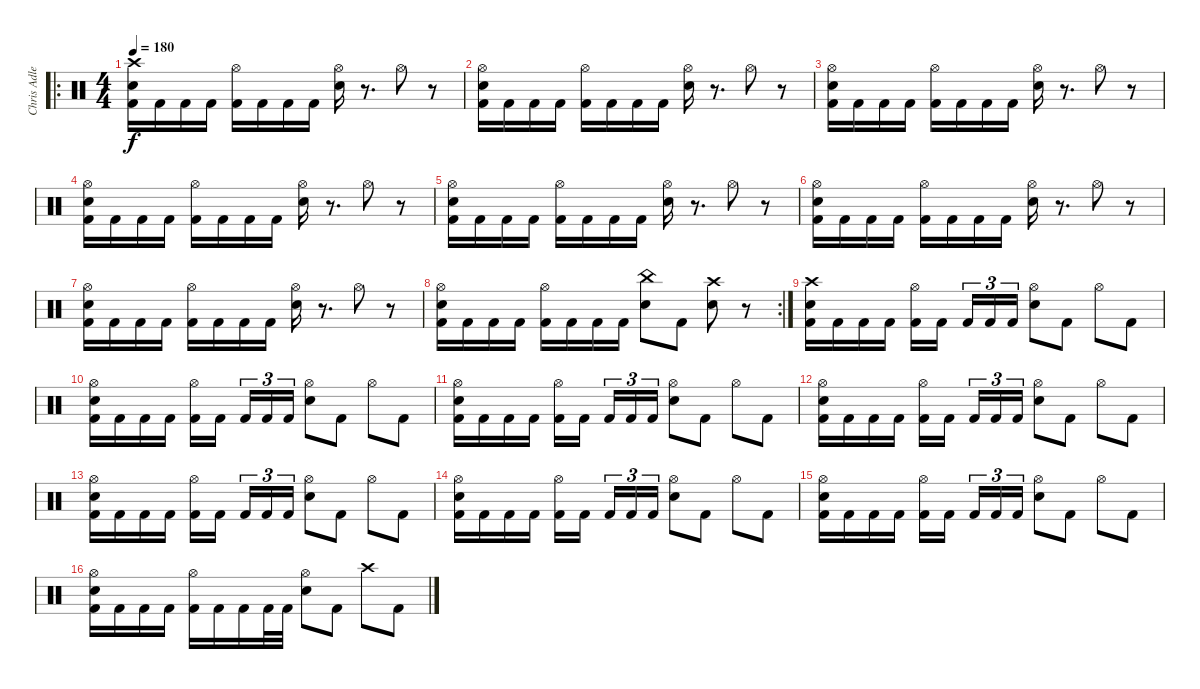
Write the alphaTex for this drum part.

\track ("Chris Adler" "Chris Adle") {instrument percussion}
\staff {score}
\articulation defaults
\ro
\ts (4 4)
\tempo 180
\clef neutral
\ks c
("Crash high (hit)" "Electric Snare (hit)" "Kick (hit) 2").16{dy f} "Kick (hit) 2".16 "Kick (hit) 2".16 "Kick (hit) 2".16 ("Hi-Hat (open)" "Kick (hit) 2").16 "Kick (hit) 2".16 "Kick (hit) 2".16 "Kick (hit) 2".16 ("Hi-Hat (open)" "Electric Snare (hit)").16 r.8{d} "Hi-Hat (open)".8 r.8 |
("Hi-Hat (open)" "Electric Snare (hit)" "Kick (hit) 2").16 "Kick (hit) 2".16 "Kick (hit) 2".16 "Kick (hit) 2".16 ("Hi-Hat (open)" "Kick (hit) 2").16 "Kick (hit) 2".16 "Kick (hit) 2".16 "Kick (hit) 2".16 ("Hi-Hat (open)" "Electric Snare (hit)").16 r.8{d} "Hi-Hat (open)".8 r.8 |
("Hi-Hat (open)" "Electric Snare (hit)" "Kick (hit) 2").16 "Kick (hit) 2".16 "Kick (hit) 2".16 "Kick (hit) 2".16 ("Hi-Hat (open)" "Kick (hit) 2").16 "Kick (hit) 2".16 "Kick (hit) 2".16 "Kick (hit) 2".16 ("Hi-Hat (open)" "Electric Snare (hit)").16 r.8{d} "Hi-Hat (open)".8 r.8 |
("Hi-Hat (open)" "Electric Snare (hit)" "Kick (hit) 2").16 "Kick (hit) 2".16 "Kick (hit) 2".16 "Kick (hit) 2".16 ("Hi-Hat (open)" "Kick (hit) 2").16 "Kick (hit) 2".16 "Kick (hit) 2".16 "Kick (hit) 2".16 ("Hi-Hat (open)" "Electric Snare (hit)").16 r.8{d} "Hi-Hat (open)".8 r.8 |
("Hi-Hat (open)" "Electric Snare (hit)" "Kick (hit) 2").16 "Kick (hit) 2".16 "Kick (hit) 2".16 "Kick (hit) 2".16 ("Hi-Hat (open)" "Kick (hit) 2").16 "Kick (hit) 2".16 "Kick (hit) 2".16 "Kick (hit) 2".16 ("Hi-Hat (open)" "Electric Snare (hit)").16 r.8{d} "Hi-Hat (open)".8 r.8 |
("Hi-Hat (open)" "Electric Snare (hit)" "Kick (hit) 2").16 "Kick (hit) 2".16 "Kick (hit) 2".16 "Kick (hit) 2".16 ("Hi-Hat (open)" "Kick (hit) 2").16 "Kick (hit) 2".16 "Kick (hit) 2".16 "Kick (hit) 2".16 ("Hi-Hat (open)" "Electric Snare (hit)").16 r.8{d} "Hi-Hat (open)".8 r.8 |
("Hi-Hat (open)" "Electric Snare (hit)" "Kick (hit) 2").16 "Kick (hit) 2".16 "Kick (hit) 2".16 "Kick (hit) 2".16 ("Hi-Hat (open)" "Kick (hit) 2").16 "Kick (hit) 2".16 "Kick (hit) 2".16 "Kick (hit) 2".16 ("Hi-Hat (open)" "Electric Snare (hit)").16 r.8{d} "Hi-Hat (open)".8 r.8 |
\rc 2
("Hi-Hat (open)" "Electric Snare (hit)" "Kick (hit) 2").16 "Kick (hit) 2".16 "Kick (hit) 2".16 "Kick (hit) 2".16 ("Hi-Hat (open)" "Kick (hit) 2").16 "Kick (hit) 2".16 "Kick (hit) 2".16 "Kick (hit) 2".16 ("China (hit)" "Electric Snare (hit)").8 "Kick (hit) 2".8 ("Crash high (hit)" "Electric Snare (hit)").8 r.8 |
("Crash high (hit)" "Electric Snare (hit)" "Kick (hit) 2").16 "Kick (hit) 2".16 "Kick (hit) 2".16 "Kick (hit) 2".16 ("Hi-Hat (open)" "Kick (hit) 2").16 "Kick (hit) 2".16 "Kick (hit) 2".16{tu (3 2)} "Kick (hit) 2".16{tu (3 2)} "Kick (hit) 2".16{tu (3 2)} ("Hi-Hat (open)" "Electric Snare (hit)").8 "Kick (hit) 2".8 "Hi-Hat (open)".8 "Kick (hit) 2".8 |
("Hi-Hat (open)" "Electric Snare (hit)" "Kick (hit) 2").16 "Kick (hit) 2".16 "Kick (hit) 2".16 "Kick (hit) 2".16 ("Hi-Hat (open)" "Kick (hit) 2").16 "Kick (hit) 2".16 "Kick (hit) 2".16{tu (3 2)} "Kick (hit) 2".16{tu (3 2)} "Kick (hit) 2".16{tu (3 2)} ("Hi-Hat (open)" "Electric Snare (hit)").8 "Kick (hit) 2".8 "Hi-Hat (open)".8 "Kick (hit) 2".8 |
("Hi-Hat (open)" "Electric Snare (hit)" "Kick (hit) 2").16 "Kick (hit) 2".16 "Kick (hit) 2".16 "Kick (hit) 2".16 ("Hi-Hat (open)" "Kick (hit) 2").16 "Kick (hit) 2".16 "Kick (hit) 2".16{tu (3 2)} "Kick (hit) 2".16{tu (3 2)} "Kick (hit) 2".16{tu (3 2)} ("Hi-Hat (open)" "Electric Snare (hit)").8 "Kick (hit) 2".8 "Hi-Hat (open)".8 "Kick (hit) 2".8 |
("Hi-Hat (open)" "Electric Snare (hit)" "Kick (hit) 2").16 "Kick (hit) 2".16 "Kick (hit) 2".16 "Kick (hit) 2".16 ("Hi-Hat (open)" "Kick (hit) 2").16 "Kick (hit) 2".16 "Kick (hit) 2".16{tu (3 2)} "Kick (hit) 2".16{tu (3 2)} "Kick (hit) 2".16{tu (3 2)} ("Hi-Hat (open)" "Electric Snare (hit)").8 "Kick (hit) 2".8 "Hi-Hat (open)".8 "Kick (hit) 2".8 |
("Hi-Hat (open)" "Electric Snare (hit)" "Kick (hit) 2").16 "Kick (hit) 2".16 "Kick (hit) 2".16 "Kick (hit) 2".16 ("Hi-Hat (open)" "Kick (hit) 2").16 "Kick (hit) 2".16 "Kick (hit) 2".16{tu (3 2)} "Kick (hit) 2".16{tu (3 2)} "Kick (hit) 2".16{tu (3 2)} ("Hi-Hat (open)" "Electric Snare (hit)").8 "Kick (hit) 2".8 "Hi-Hat (open)".8 "Kick (hit) 2".8 |
("Hi-Hat (open)" "Electric Snare (hit)" "Kick (hit) 2").16 "Kick (hit) 2".16 "Kick (hit) 2".16 "Kick (hit) 2".16 ("Hi-Hat (open)" "Kick (hit) 2").16 "Kick (hit) 2".16 "Kick (hit) 2".16{tu (3 2)} "Kick (hit) 2".16{tu (3 2)} "Kick (hit) 2".16{tu (3 2)} ("Hi-Hat (open)" "Electric Snare (hit)").8 "Kick (hit) 2".8 "Hi-Hat (open)".8 "Kick (hit) 2".8 |
("Hi-Hat (open)" "Electric Snare (hit)" "Kick (hit) 2").16 "Kick (hit) 2".16 "Kick (hit) 2".16 "Kick (hit) 2".16 ("Hi-Hat (open)" "Kick (hit) 2").16 "Kick (hit) 2".16 "Kick (hit) 2".16{tu (3 2)} "Kick (hit) 2".16{tu (3 2)} "Kick (hit) 2".16{tu (3 2)} ("Hi-Hat (open)" "Electric Snare (hit)").8 "Kick (hit) 2".8 "Hi-Hat (open)".8 "Kick (hit) 2".8 |
("Hi-Hat (open)" "Electric Snare (hit)" "Kick (hit) 2").16 "Kick (hit) 2".16 "Kick (hit) 2".16 "Kick (hit) 2".16 ("Hi-Hat (open)" "Kick (hit) 2").16 "Kick (hit) 2".16 "Kick (hit) 2".16 "Kick (hit) 2".32 "Kick (hit) 2".32 ("Hi-Hat (open)" "Electric Snare (hit)").8 "Kick (hit) 2".8 "Crash high (hit)".8 "Kick (hit) 2".8
